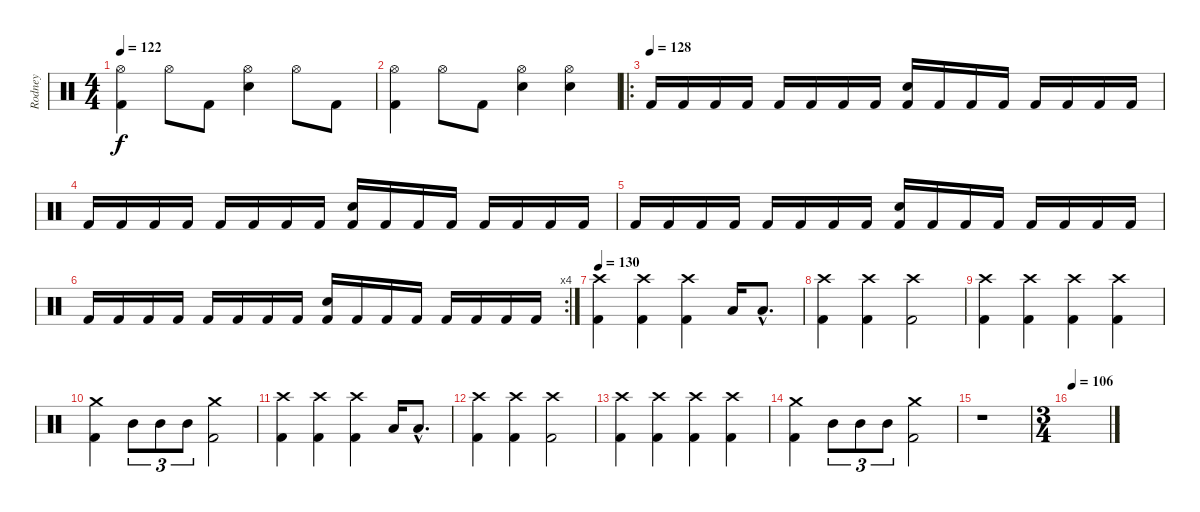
\track ("Rodney" "Rodney") {instrument percussion}
\staff {score}
\articulation defaults
\ts (4 4)
\tempo 122
\clef neutral
\ks c
("Hi-Hat (open)" "Kick (hit) 2").4{dy f} "Hi-Hat (open)".8 "Kick (hit) 2".8 ("Hi-Hat (open)" "Snare (hit) 2").4 "Hi-Hat (open)".8 "Kick (hit) 2".8 |
("Hi-Hat (open)" "Kick (hit) 2").4 "Hi-Hat (open)".8 "Kick (hit) 2".8 ("Hi-Hat (open)" "Snare (hit) 2").4 ("Hi-Hat (open)" "Snare (hit) 2").4 |
\ro
\tempo (128)
"Kick (hit) 2".16 "Kick (hit) 2".16 "Kick (hit) 2".16 "Kick (hit) 2".16 "Kick (hit) 2".16 "Kick (hit) 2".16 "Kick (hit) 2".16 "Kick (hit) 2".16 ("Snare (hit) 2" "Kick (hit) 2").16 "Kick (hit) 2".16 "Kick (hit) 2".16 "Kick (hit) 2".16 "Kick (hit) 2".16 "Kick (hit) 2".16 "Kick (hit) 2".16 "Kick (hit) 2".16 |
"Kick (hit) 2".16 "Kick (hit) 2".16 "Kick (hit) 2".16 "Kick (hit) 2".16 "Kick (hit) 2".16 "Kick (hit) 2".16 "Kick (hit) 2".16 "Kick (hit) 2".16 ("Snare (hit) 2" "Kick (hit) 2").16 "Kick (hit) 2".16 "Kick (hit) 2".16 "Kick (hit) 2".16 "Kick (hit) 2".16 "Kick (hit) 2".16 "Kick (hit) 2".16 "Kick (hit) 2".16 |
"Kick (hit) 2".16 "Kick (hit) 2".16 "Kick (hit) 2".16 "Kick (hit) 2".16 "Kick (hit) 2".16 "Kick (hit) 2".16 "Kick (hit) 2".16 "Kick (hit) 2".16 ("Snare (hit) 2" "Kick (hit) 2").16 "Kick (hit) 2".16 "Kick (hit) 2".16 "Kick (hit) 2".16 "Kick (hit) 2".16 "Kick (hit) 2".16 "Kick (hit) 2".16 "Kick (hit) 2".16 |
\rc 4 "Kick (hit) 2".16 "Kick (hit) 2".16 "Kick (hit) 2".16 "Kick (hit) 2".16 "Kick (hit) 2".16 "Kick (hit) 2".16 "Kick (hit) 2".16 "Kick (hit) 2".16
("Snare (hit) 2" "Kick (hit) 2").16 "Kick (hit) 2".16 "Kick (hit) 2".16 "Kick (hit) 2".16 "Kick (hit) 2".16 "Kick (hit) 2".16 "Kick (hit) 2".16 "Kick (hit) 2".16 |
\tempo 130
("Crash high (hit)" "Kick (hit) 2").4 ("Crash high (hit)" "Kick (hit) 2").4 ("Crash high (hit)" "Kick (hit) 2").4 "Low Tom (hit)".16 "Low Tom (hit)"{hac}.8{d} |
("Crash high (hit)" "Kick (hit) 2").4 ("Crash high (hit)" "Kick (hit) 2").4 ("Crash high (hit)" "Kick (hit) 2").2 |
("Crash high (hit)" "Kick (hit) 2").4 ("Crash high (hit)" "Kick (hit) 2").4 ("Crash high (hit)" "Kick (hit) 2").4 ("Crash high (hit)" "Kick (hit) 2").4 |
("Crash medium (hit)" "Kick (hit) 2").4 "Mid Tom (hit)".8{tu (3 2)} "Mid Tom (hit)".8{tu (3 2)} "Mid Tom (hit)".8{tu (3 2)} ("Crash medium (hit)" "Kick (hit) 2").2 |
("Crash high (hit)" "Kick (hit) 2").4 ("Crash high (hit)" "Kick (hit) 2").4 ("Crash high (hit)" "Kick (hit) 2").4 "Low Tom (hit)".16 "Low Tom (hit)"{hac}.8{d} |
("Crash high (hit)" "Kick (hit) 2").4 ("Crash high (hit)" "Kick (hit) 2").4 ("Crash high (hit)" "Kick (hit) 2").2 |
("Crash high (hit)" "Kick (hit) 2").4 ("Crash high (hit)" "Kick (hit) 2").4 ("Crash high (hit)" "Kick (hit) 2").4 ("Crash high (hit)" "Kick (hit) 2").4 |
("Crash medium (hit)" "Kick (hit) 2").4 "Mid Tom (hit)".8{tu (3 2)} "Mid Tom (hit)".8{tu (3 2)} "Mid Tom (hit)".8{tu (3 2)} ("Crash medium (hit)" "Kick (hit) 2").2 |
r.1 |
\ts (3 4)
\tempo 106
